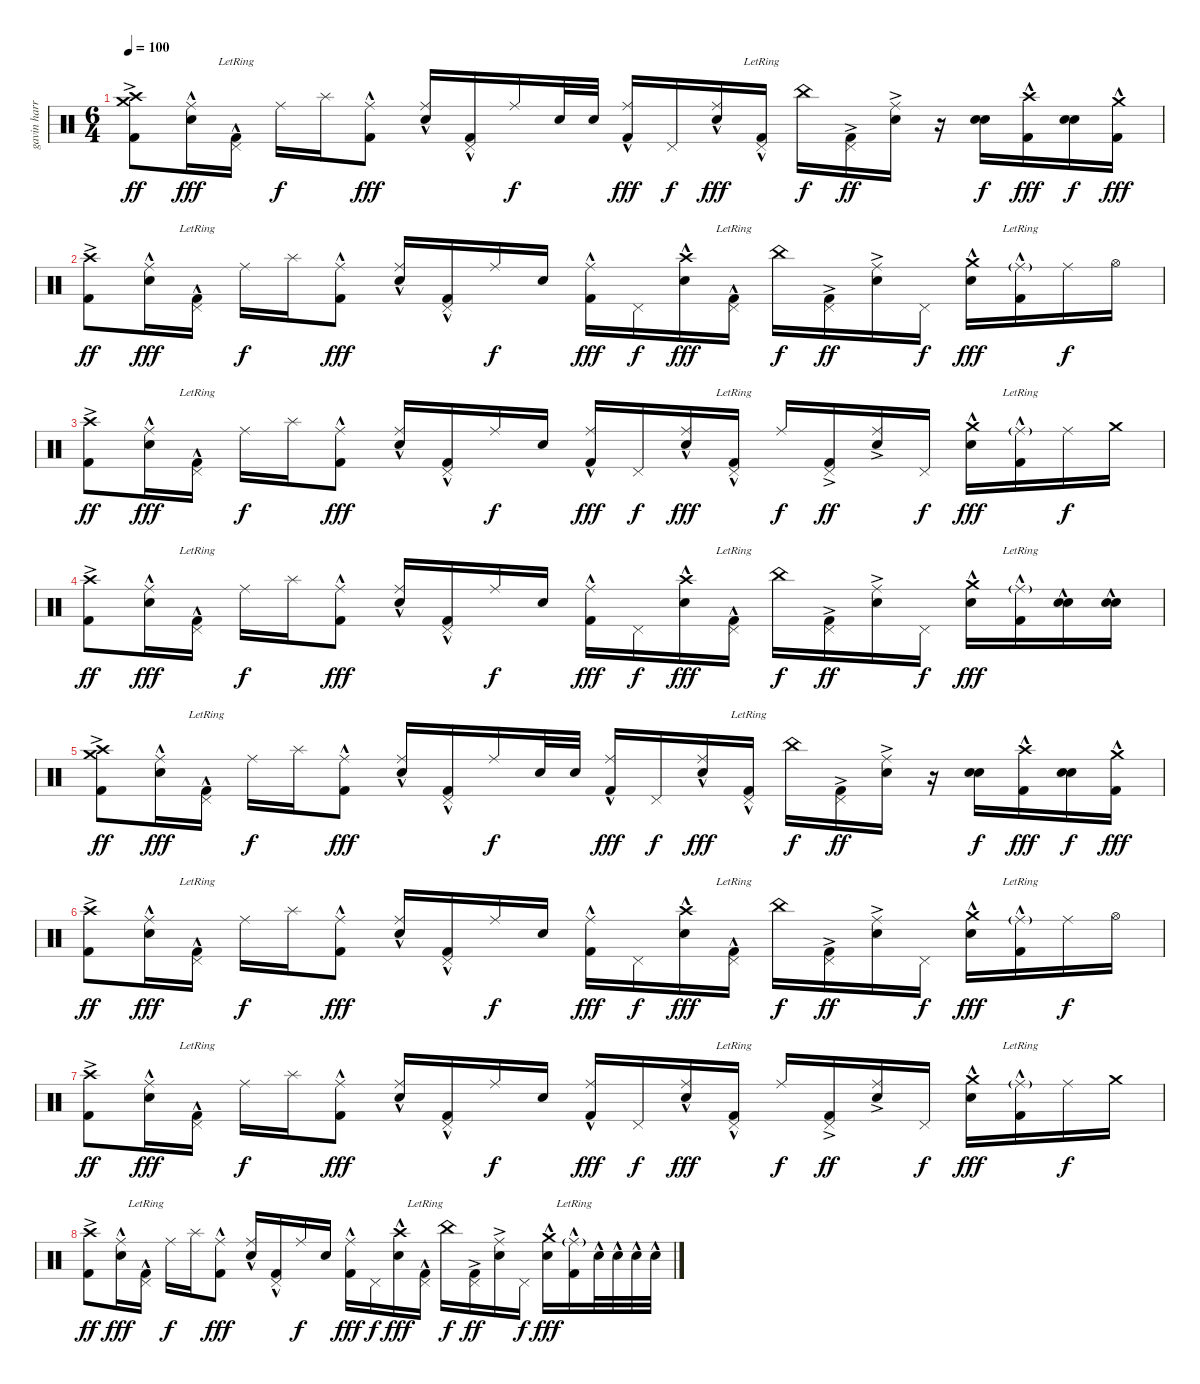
\track ("gavin harrison" "gavin harr") {instrument percussion}
\staff {score}
\articulation defaults
\ts (6 4)
\tempo 100
\clef neutral
\ks c
("Crash high (hit)" "Crash medium (hit)" "Kick (hit) 2"{ac}).8{dy ff} ("Ride (middle)" "Electric Snare (hit)"{hac}).16{dy fff} ("Pedal Hi-Hat (hit)" "Kick (hit) 2"{hac lr}).16 "Ride (middle)".16{dy f} "Splash (hit)".16 ("Ride (middle)" "Kick (hit) 2"{hac}).8{dy fff} ("Ride (middle)" "Electric Snare (hit)"{hac}).16 ("Pedal Hi-Hat (hit)" "Kick (hit) 2"{hac}).16 "Ride (middle)".16{dy f} "Electric Snare (hit)".32 "Electric Snare (hit)".32 ("Ride (middle)" "Kick (hit) 2"{hac}).16{dy fff} "Pedal Hi-Hat (hit)".16{dy f} ("Ride (middle)" "Electric Snare (hit)"{hac}).16{dy fff} ("Pedal Hi-Hat (hit)" "Kick (hit) 2"{hac lr}).16 "China (hit)".16{dy f} ("Pedal Hi-Hat (hit)" "Kick (hit) 2"{ac}).16{dy ff} ("Ride (middle)" "Electric Snare (hit)"{ac}).16 r.16 ("Electric Snare (hit)" "Electric Snare (hit)").16{dy f} ("Crash high (hit)" "Kick (hit) 2"{hac}).16{dy fff} ("Electric Snare (hit)" "Electric Snare (hit)").16{dy f} ("Crash medium (hit)" "Kick (hit) 2"{hac}).16{dy fff} |
("Crash high (hit)" "Kick (hit) 2"{ac}).8{dy ff} ("Ride (middle)" "Electric Snare (hit)"{hac}).16{dy fff} ("Pedal Hi-Hat (hit)" "Kick (hit) 2"{hac lr}).16 "Ride (middle)".16{dy f} "Splash (hit)".16 ("Ride (middle)" "Kick (hit) 2"{hac}).8{dy fff} ("Ride (middle)" "Electric Snare (hit)"{hac}).16 ("Pedal Hi-Hat (hit)" "Kick (hit) 2"{hac}).16 "Ride (middle)".16{dy f} "Electric Snare (hit)".16 ("Ride (middle)" "Kick (hit) 2"{hac}).16{dy fff} "Pedal Hi-Hat (hit)".16{dy f} ("Crash high (hit)" "Electric Snare (hit)"{hac}).16{dy fff} ("Pedal Hi-Hat (hit)" "Kick (hit) 2"{hac lr}).16 "China (hit)".16{dy f} ("Pedal Hi-Hat (hit)" "Kick (hit) 2"{ac}).16{dy ff} ("Ride (middle)" "Electric Snare (hit)"{ac}).16 "Pedal Hi-Hat (hit)".16{dy f} ("Crash medium (hit)" "Electric Snare (hit)"{hac}).16{dy fff} ("Ride (middle)"{g} "Kick (hit) 2"{hac lr}).16 "Ride (middle)".16{dy f} "Hi-Hat (open)".16 |
("Crash high (hit)" "Kick (hit) 2"{ac}).8{dy ff} ("Ride (middle)" "Electric Snare (hit)"{hac}).16{dy fff} ("Pedal Hi-Hat (hit)" "Kick (hit) 2"{hac lr}).16 "Ride (middle)".16{dy f} "Splash (hit)".16 ("Ride (middle)" "Kick (hit) 2"{hac}).8{dy fff} ("Ride (middle)" "Electric Snare (hit)"{hac}).16 ("Pedal Hi-Hat (hit)" "Kick (hit) 2"{hac}).16 "Ride (middle)".16{dy f} "Electric Snare (hit)".16 ("Ride (middle)" "Kick (hit) 2"{hac}).16{dy fff} "Pedal Hi-Hat (hit)".16{dy f} ("Ride (middle)" "Electric Snare (hit)"{hac}).16{dy fff} ("Pedal Hi-Hat (hit)" "Kick (hit) 2"{hac lr}).16 "Ride (middle)".16{dy f} ("Pedal Hi-Hat (hit)" "Kick (hit) 2"{ac}).16{dy ff} ("Ride (middle)" "Electric Snare (hit)"{ac}).16 "Pedal Hi-Hat (hit)".16{dy f} ("Crash medium (hit)" "Electric Snare (hit)"{hac}).16{dy fff} ("Ride (middle)"{g} "Kick (hit) 2"{hac lr}).16 "Ride (middle)".16{dy f} "Crash medium (hit)".16 |
("Crash high (hit)" "Kick (hit) 2"{ac}).8{dy ff} ("Ride (middle)" "Electric Snare (hit)"{hac}).16{dy fff} ("Pedal Hi-Hat (hit)" "Kick (hit) 2"{hac lr}).16 "Ride (middle)".16{dy f} "Splash (hit)".16 ("Ride (middle)" "Kick (hit) 2"{hac}).8{dy fff} ("Ride (middle)" "Electric Snare (hit)"{hac}).16 ("Pedal Hi-Hat (hit)" "Kick (hit) 2"{hac}).16 "Ride (middle)".16{dy f} "Electric Snare (hit)".16 ("Ride (middle)" "Kick (hit) 2"{hac}).16{dy fff} "Pedal Hi-Hat (hit)".16{dy f} ("Crash high (hit)" "Electric Snare (hit)"{hac}).16{dy fff} ("Pedal Hi-Hat (hit)" "Kick (hit) 2"{hac lr}).16 "China (hit)".16{dy f} ("Pedal Hi-Hat (hit)" "Kick (hit) 2"{ac}).16{dy ff} ("Ride (middle)" "Electric Snare (hit)"{ac}).16 "Pedal Hi-Hat (hit)".16{dy f} ("Crash medium (hit)" "Electric Snare (hit)"{hac}).16{dy fff} ("Ride (middle)"{g} "Kick (hit) 2"{hac lr}).16 ("Electric Snare (hit)"{hac} "Electric Snare (hit)").16 ("Electric Snare (hit)"{hac} "Electric Snare (hit)").16 |
("Crash high (hit)" "Crash medium (hit)" "Kick (hit) 2"{ac}).8{dy ff} ("Ride (middle)" "Electric Snare (hit)"{hac}).16{dy fff} ("Pedal Hi-Hat (hit)" "Kick (hit) 2"{hac lr}).16 "Ride (middle)".16{dy f} "Splash (hit)".16 ("Ride (middle)" "Kick (hit) 2"{hac}).8{dy fff} ("Ride (middle)" "Electric Snare (hit)"{hac}).16 ("Pedal Hi-Hat (hit)" "Kick (hit) 2"{hac}).16 "Ride (middle)".16{dy f} "Electric Snare (hit)".32 "Electric Snare (hit)".32 ("Ride (middle)" "Kick (hit) 2"{hac}).16{dy fff} "Pedal Hi-Hat (hit)".16{dy f} ("Ride (middle)" "Electric Snare (hit)"{hac}).16{dy fff} ("Pedal Hi-Hat (hit)" "Kick (hit) 2"{hac lr}).16 "China (hit)".16{dy f} ("Pedal Hi-Hat (hit)" "Kick (hit) 2"{ac}).16{dy ff} ("Ride (middle)" "Electric Snare (hit)"{ac}).16 r.16 ("Electric Snare (hit)" "Electric Snare (hit)").16{dy f} ("Crash high (hit)" "Kick (hit) 2"{hac}).16{dy fff} ("Electric Snare (hit)" "Electric Snare (hit)").16{dy f} ("Crash medium (hit)" "Kick (hit) 2"{hac}).16{dy fff} |
("Crash high (hit)" "Kick (hit) 2"{ac}).8{dy ff} ("Ride (middle)" "Electric Snare (hit)"{hac}).16{dy fff} ("Pedal Hi-Hat (hit)" "Kick (hit) 2"{hac lr}).16 "Ride (middle)".16{dy f} "Splash (hit)".16 ("Ride (middle)" "Kick (hit) 2"{hac}).8{dy fff} ("Ride (middle)" "Electric Snare (hit)"{hac}).16 ("Pedal Hi-Hat (hit)" "Kick (hit) 2"{hac}).16 "Ride (middle)".16{dy f} "Electric Snare (hit)".16 ("Ride (middle)" "Kick (hit) 2"{hac}).16{dy fff} "Pedal Hi-Hat (hit)".16{dy f} ("Crash high (hit)" "Electric Snare (hit)"{hac}).16{dy fff} ("Pedal Hi-Hat (hit)" "Kick (hit) 2"{hac lr}).16 "China (hit)".16{dy f} ("Pedal Hi-Hat (hit)" "Kick (hit) 2"{ac}).16{dy ff} ("Ride (middle)" "Electric Snare (hit)"{ac}).16 "Pedal Hi-Hat (hit)".16{dy f} ("Crash medium (hit)" "Electric Snare (hit)"{hac}).16{dy fff} ("Ride (middle)"{g} "Kick (hit) 2"{hac lr}).16 "Ride (middle)".16{dy f} "Hi-Hat (open)".16 |
("Crash high (hit)" "Kick (hit) 2"{ac}).8{dy ff} ("Ride (middle)" "Electric Snare (hit)"{hac}).16{dy fff} ("Pedal Hi-Hat (hit)" "Kick (hit) 2"{hac lr}).16 "Ride (middle)".16{dy f} "Splash (hit)".16 ("Ride (middle)" "Kick (hit) 2"{hac}).8{dy fff} ("Ride (middle)" "Electric Snare (hit)"{hac}).16 ("Pedal Hi-Hat (hit)" "Kick (hit) 2"{hac}).16 "Ride (middle)".16{dy f} "Electric Snare (hit)".16 ("Ride (middle)" "Kick (hit) 2"{hac}).16{dy fff} "Pedal Hi-Hat (hit)".16{dy f} ("Ride (middle)" "Electric Snare (hit)"{hac}).16{dy fff} ("Pedal Hi-Hat (hit)" "Kick (hit) 2"{hac lr}).16 "Ride (middle)".16{dy f} ("Pedal Hi-Hat (hit)" "Kick (hit) 2"{ac}).16{dy ff} ("Ride (middle)" "Electric Snare (hit)"{ac}).16 "Pedal Hi-Hat (hit)".16{dy f} ("Crash medium (hit)" "Electric Snare (hit)"{hac}).16{dy fff} ("Ride (middle)"{g} "Kick (hit) 2"{hac lr}).16 "Ride (middle)".16{dy f} "Crash medium (hit)".16 |
("Crash high (hit)" "Kick (hit) 2"{ac}).8{dy ff} ("Ride (middle)" "Electric Snare (hit)"{hac}).16{dy fff} ("Pedal Hi-Hat (hit)" "Kick (hit) 2"{hac lr}).16 "Ride (middle)".16{dy f} "Splash (hit)".16 ("Ride (middle)" "Kick (hit) 2"{hac}).8{dy fff} ("Ride (middle)" "Electric Snare (hit)"{hac}).16 ("Pedal Hi-Hat (hit)" "Kick (hit) 2"{hac}).16 "Ride (middle)".16{dy f} "Electric Snare (hit)".16 ("Ride (middle)" "Kick (hit) 2"{hac}).16{dy fff} "Pedal Hi-Hat (hit)".16{dy f} ("Crash high (hit)" "Electric Snare (hit)"{hac}).16{dy fff} ("Pedal Hi-Hat (hit)" "Kick (hit) 2"{hac lr}).16 "China (hit)".16{dy f} ("Pedal Hi-Hat (hit)" "Kick (hit) 2"{ac}).16{dy ff} ("Ride (middle)" "Electric Snare (hit)"{ac}).16 "Pedal Hi-Hat (hit)".16{dy f} ("Crash medium (hit)" "Electric Snare (hit)"{hac}).16{dy fff} ("Ride (middle)"{g} "Kick (hit) 2"{hac lr}).16 "Electric Snare (hit)"{hac}.32 "Electric Snare (hit)"{hac}.32 "Electric Snare (hit)"{hac}.32 "Electric Snare (hit)"{hac}.32
